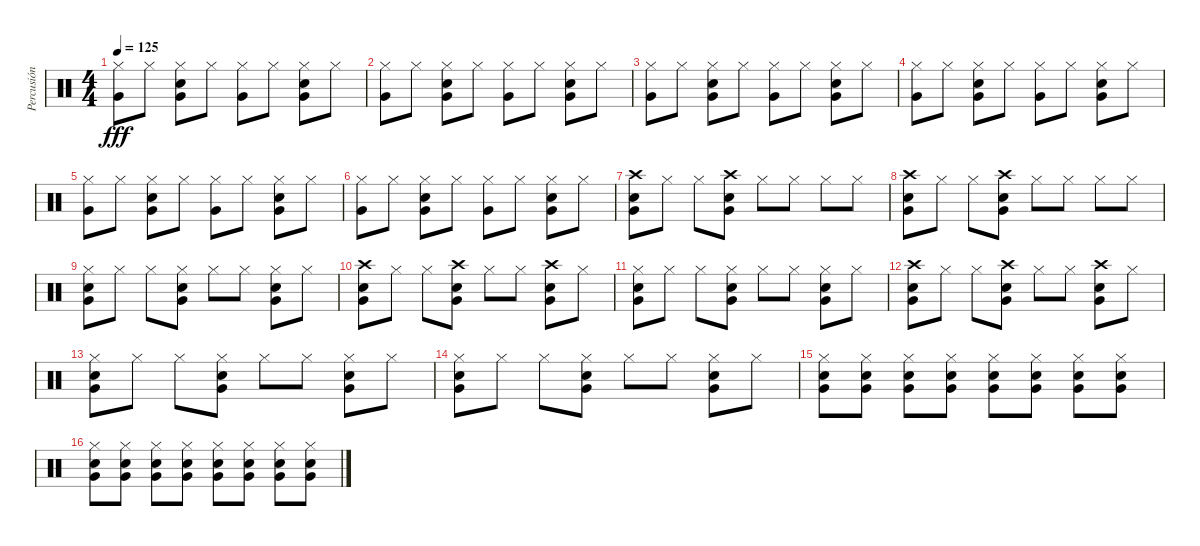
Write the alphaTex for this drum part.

\track ("Percusión" "Percusión") {instrument percussion}
\staff {score}
\articulation defaults
\ts (4 4)
\tempo 125
\clef neutral
\ks c
("Hi-Hat (closed)" "Very Low Tom (hit)").8{dy fff} "Hi-Hat (closed)".8 ("Hi-Hat (closed)" "Snare (hit) 2" "Very Low Tom (hit)").8 "Hi-Hat (closed)".8 ("Hi-Hat (closed)" "Very Low Tom (hit)").8 "Hi-Hat (closed)".8 ("Hi-Hat (closed)" "Snare (hit) 2" "Very Low Tom (hit)").8 "Hi-Hat (closed)".8 |
("Hi-Hat (closed)" "Very Low Tom (hit)").8 "Hi-Hat (closed)".8 ("Hi-Hat (closed)" "Snare (hit) 2" "Very Low Tom (hit)").8 "Hi-Hat (closed)".8 ("Hi-Hat (closed)" "Very Low Tom (hit)").8 "Hi-Hat (closed)".8 ("Hi-Hat (closed)" "Snare (hit) 2" "Very Low Tom (hit)").8 "Hi-Hat (closed)".8 |
("Hi-Hat (closed)" "Very Low Tom (hit)").8 "Hi-Hat (closed)".8 ("Hi-Hat (closed)" "Snare (hit) 2" "Very Low Tom (hit)").8 "Hi-Hat (closed)".8 ("Hi-Hat (closed)" "Very Low Tom (hit)").8 "Hi-Hat (closed)".8 ("Hi-Hat (closed)" "Snare (hit) 2" "Very Low Tom (hit)").8 "Hi-Hat (closed)".8 |
("Hi-Hat (closed)" "Very Low Tom (hit)").8 "Hi-Hat (closed)".8 ("Hi-Hat (closed)" "Snare (hit) 2" "Very Low Tom (hit)").8 "Hi-Hat (closed)".8 ("Hi-Hat (closed)" "Very Low Tom (hit)").8 "Hi-Hat (closed)".8 ("Hi-Hat (closed)" "Snare (hit) 2" "Very Low Tom (hit)").8 "Hi-Hat (closed)".8 |
("Hi-Hat (closed)" "Very Low Tom (hit)").8 "Hi-Hat (closed)".8 ("Hi-Hat (closed)" "Snare (hit) 2" "Very Low Tom (hit)").8 "Hi-Hat (closed)".8 ("Hi-Hat (closed)" "Very Low Tom (hit)").8 "Hi-Hat (closed)".8 ("Hi-Hat (closed)" "Snare (hit) 2" "Very Low Tom (hit)").8 "Hi-Hat (closed)".8 |
("Hi-Hat (closed)" "Very Low Tom (hit)").8 "Hi-Hat (closed)".8 ("Hi-Hat (closed)" "Snare (hit) 2" "Very Low Tom (hit)").8 "Hi-Hat (closed)".8 ("Hi-Hat (closed)" "Very Low Tom (hit)").8 "Hi-Hat (closed)".8 ("Hi-Hat (closed)" "Snare (hit) 2" "Very Low Tom (hit)").8 "Hi-Hat (closed)".8 |
("Crash high (hit)" "Snare (hit) 2" "Very Low Tom (hit)").8 "Hi-Hat (closed)".8 "Hi-Hat (closed)".8 ("Crash high (hit)" "Snare (hit) 2" "Very Low Tom (hit)").8 "Hi-Hat (closed)".8 "Hi-Hat (closed)".8 "Hi-Hat (closed)".8 "Hi-Hat (closed)".8 |
("Crash high (hit)" "Snare (hit) 2" "Very Low Tom (hit)").8 "Hi-Hat (closed)".8 "Hi-Hat (closed)".8 ("Crash high (hit)" "Snare (hit) 2" "Very Low Tom (hit)").8 "Hi-Hat (closed)".8 "Hi-Hat (closed)".8 "Hi-Hat (closed)".8 "Hi-Hat (closed)".8 |
("Hi-Hat (closed)" "Snare (hit) 2" "Very Low Tom (hit)").8 "Hi-Hat (closed)".8 "Hi-Hat (closed)".8 ("Hi-Hat (closed)" "Snare (hit) 2" "Very Low Tom (hit)").8 "Hi-Hat (closed)".8 "Hi-Hat (closed)".8 ("Hi-Hat (closed)" "Snare (hit) 2" "Very Low Tom (hit)").8 "Hi-Hat (closed)".8 |
("Crash high (hit)" "Snare (hit) 2" "Very Low Tom (hit)").8 "Hi-Hat (closed)".8 "Hi-Hat (closed)".8 ("Crash high (hit)" "Snare (hit) 2" "Very Low Tom (hit)").8 "Hi-Hat (closed)".8 "Hi-Hat (closed)".8 ("Crash high (hit)" "Snare (hit) 2" "Very Low Tom (hit)").8 "Hi-Hat (closed)".8 |
("Hi-Hat (closed)" "Snare (hit) 2" "Very Low Tom (hit)").8 "Hi-Hat (closed)".8 "Hi-Hat (closed)".8 ("Hi-Hat (closed)" "Snare (hit) 2" "Very Low Tom (hit)").8 "Hi-Hat (closed)".8 "Hi-Hat (closed)".8 ("Hi-Hat (closed)" "Snare (hit) 2" "Very Low Tom (hit)").8 "Hi-Hat (closed)".8 |
("Crash high (hit)" "Snare (hit) 2" "Very Low Tom (hit)").8 "Hi-Hat (closed)".8 "Hi-Hat (closed)".8 ("Crash high (hit)" "Snare (hit) 2" "Very Low Tom (hit)").8 "Hi-Hat (closed)".8 "Hi-Hat (closed)".8 ("Crash high (hit)" "Snare (hit) 2" "Very Low Tom (hit)").8 "Hi-Hat (closed)".8 |
("Hi-Hat (closed)" "Snare (hit) 2" "Very Low Tom (hit)").8 "Hi-Hat (closed)".8 "Hi-Hat (closed)".8 ("Hi-Hat (closed)" "Snare (hit) 2" "Very Low Tom (hit)").8 "Hi-Hat (closed)".8 "Hi-Hat (closed)".8 ("Hi-Hat (closed)" "Snare (hit) 2" "Very Low Tom (hit)").8 "Hi-Hat (closed)".8 |
("Hi-Hat (closed)" "Snare (hit) 2" "Very Low Tom (hit)").8 "Hi-Hat (closed)".8 "Hi-Hat (closed)".8 ("Hi-Hat (closed)" "Snare (hit) 2" "Very Low Tom (hit)").8 "Hi-Hat (closed)".8 "Hi-Hat (closed)".8 ("Hi-Hat (closed)" "Snare (hit) 2" "Very Low Tom (hit)").8 "Hi-Hat (closed)".8 |
("Hi-Hat (closed)" "Snare (hit) 2" "Very Low Tom (hit)").8 ("Hi-Hat (closed)" "Snare (hit) 2" "Very Low Tom (hit)").8 ("Hi-Hat (closed)" "Snare (hit) 2" "Very Low Tom (hit)").8 ("Hi-Hat (closed)" "Snare (hit) 2" "Very Low Tom (hit)").8 ("Hi-Hat (closed)" "Snare (hit) 2" "Very Low Tom (hit)").8 ("Hi-Hat (closed)" "Snare (hit) 2" "Very Low Tom (hit)").8 ("Hi-Hat (closed)" "Snare (hit) 2" "Very Low Tom (hit)").8 ("Hi-Hat (closed)" "Snare (hit) 2" "Very Low Tom (hit)").8 |
("Hi-Hat (closed)" "Snare (hit) 2" "Very Low Tom (hit)").8 ("Hi-Hat (closed)" "Snare (hit) 2" "Very Low Tom (hit)").8 ("Hi-Hat (closed)" "Snare (hit) 2" "Very Low Tom (hit)").8 ("Hi-Hat (closed)" "Snare (hit) 2" "Very Low Tom (hit)").8 ("Hi-Hat (closed)" "Snare (hit) 2" "Very Low Tom (hit)").8 ("Hi-Hat (closed)" "Snare (hit) 2" "Very Low Tom (hit)").8 ("Hi-Hat (closed)" "Snare (hit) 2" "Very Low Tom (hit)").8 ("Hi-Hat (closed)" "Snare (hit) 2" "Very Low Tom (hit)").8
